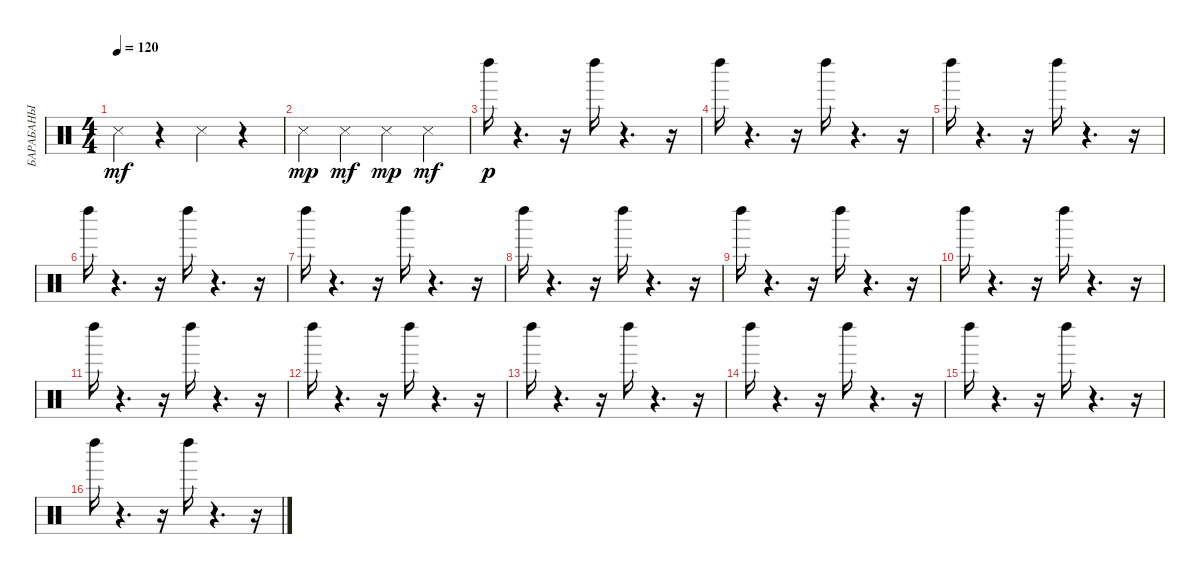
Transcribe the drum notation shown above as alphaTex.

\track ("БАРАБАНЫ" "БАРАБАНЫ") {instrument percussion}
\staff {score}
\articulation defaults
\ts (4 4)
\tempo 120
\clef neutral
\ks c "Snare (side stick) 3".4{dy mf}
r.4 "Snare (side stick) 3".4 r.4 |
"Snare (side stick) 3".4{dy mp} "Snare (side stick) 3".4{dy mf} "Snare (side stick) 3".4{dy mp} "Snare (side stick) 3".4{dy mf} |
"Left Maraca (hit)".16{dy p} r.4{d} r.16 "Left Maraca (hit)".16 r.4{d} r.16 |
"Left Maraca (hit)".16 r.4{d} r.16 "Left Maraca (hit)".16 r.4{d} r.16 |
"Left Maraca (hit)".16 r.4{d} r.16 "Left Maraca (hit)".16 r.4{d} r.16 |
"Left Maraca (hit)".16 r.4{d} r.16 "Left Maraca (hit)".16 r.4{d} r.16 |
"Left Maraca (hit)".16 r.4{d} r.16 "Left Maraca (hit)".16 r.4{d} r.16 |
"Left Maraca (hit)".16 r.4{d} r.16 "Left Maraca (hit)".16 r.4{d} r.16 |
"Left Maraca (hit)".16 r.4{d} r.16 "Left Maraca (hit)".16 r.4{d} r.16 |
"Left Maraca (hit)".16 r.4{d} r.16 "Left Maraca (hit)".16 r.4{d} r.16 |
"Left Maraca (hit)".16 r.4{d} r.16 "Left Maraca (hit)".16 r.4{d} r.16 |
"Left Maraca (hit)".16 r.4{d} r.16 "Left Maraca (hit)".16 r.4{d} r.16 |
"Left Maraca (hit)".16 r.4{d} r.16 "Left Maraca (hit)".16 r.4{d} r.16 |
"Left Maraca (hit)".16 r.4{d} r.16 "Left Maraca (hit)".16 r.4{d} r.16 |
"Left Maraca (hit)".16 r.4{d} r.16 "Left Maraca (hit)".16 r.4{d} r.16 |
"Left Maraca (hit)".16 r.4{d} r.16 "Left Maraca (hit)".16 r.4{d} r.16
